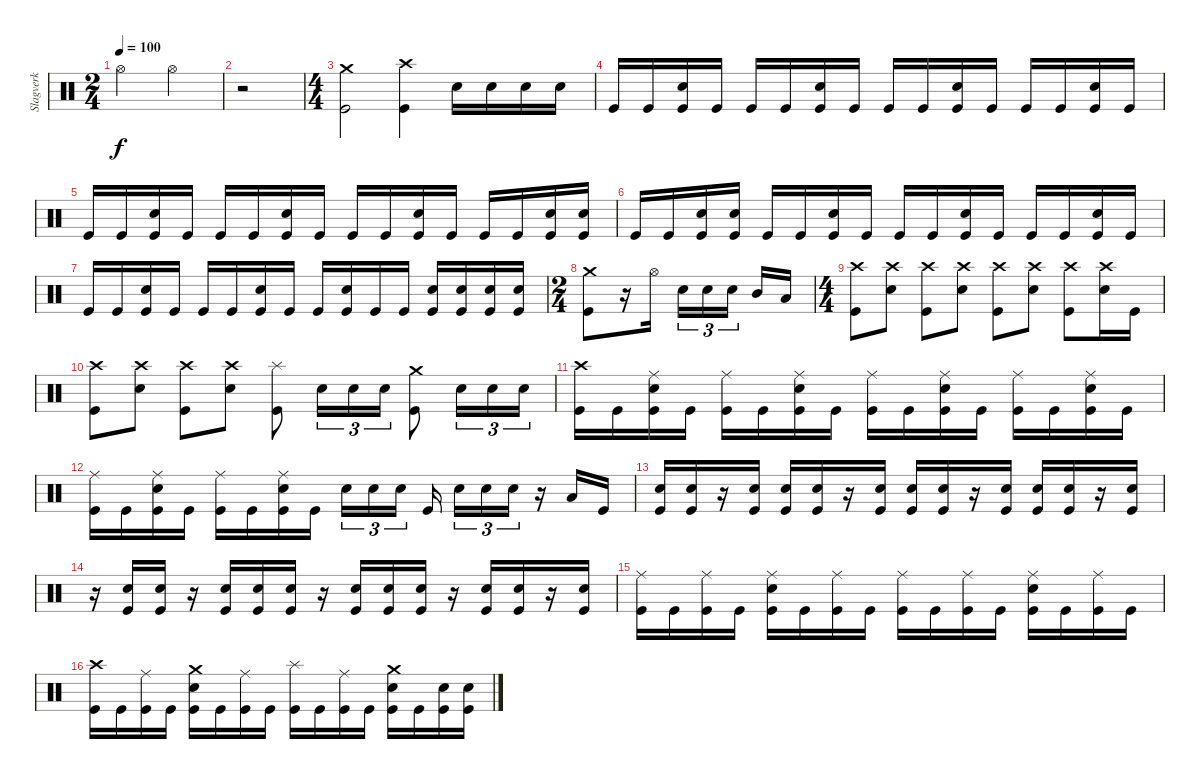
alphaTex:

\track ("Slagverk" "Slagverk") {instrument percussion}
\staff {score}
\articulation defaults
\ts (2 4)
\tempo 100
\clef neutral
\ks c "Hi-Hat (open)".4{dy f volume 13} "Hi-Hat (open)".4
|
r.2 |
\ts (4 4)
("Crash medium (hit)" "Kick (hit)").2 ("Crash high (hit)" "Kick (hit)").4 "Electric Snare (hit)".16 "Electric Snare (hit)".16 "Electric Snare (hit)".16 "Electric Snare (hit)".16 |
"Kick (hit)".16{volume 13} "Kick (hit)".16 ("Electric Snare (hit)" "Kick (hit)").16 "Kick (hit)".16 "Kick (hit)".16 "Kick (hit)".16 ("Electric Snare (hit)" "Kick (hit)").16 "Kick (hit)".16 "Kick (hit)".16 "Kick (hit)".16 ("Electric Snare (hit)" "Kick (hit)").16 "Kick (hit)".16 "Kick (hit)".16 "Kick (hit)".16 ("Electric Snare (hit)" "Kick (hit)").16 "Kick (hit)".16 |
"Kick (hit)".16 "Kick (hit)".16 ("Electric Snare (hit)" "Kick (hit)").16 "Kick (hit)".16 "Kick (hit)".16 "Kick (hit)".16 ("Electric Snare (hit)" "Kick (hit)").16 "Kick (hit)".16 "Kick (hit)".16 "Kick (hit)".16 ("Electric Snare (hit)" "Kick (hit)").16 "Kick (hit)".16 "Kick (hit)".16 "Kick (hit)".16 ("Electric Snare (hit)" "Kick (hit)").16 ("Electric Snare (hit)" "Kick (hit)").16 |
"Kick (hit)".16 "Kick (hit)".16 ("Electric Snare (hit)" "Kick (hit)").16 ("Electric Snare (hit)" "Kick (hit)").16 "Kick (hit)".16 "Kick (hit)".16 ("Electric Snare (hit)" "Kick (hit)").16 "Kick (hit)".16 "Kick (hit)".16 "Kick (hit)".16 ("Electric Snare (hit)" "Kick (hit)").16 "Kick (hit)".16 "Kick (hit)".16 "Kick (hit)".16 ("Electric Snare (hit)" "Kick (hit)").16 "Kick (hit)".16 |
"Kick (hit)".16 "Kick (hit)".16 ("Electric Snare (hit)" "Kick (hit)").16 "Kick (hit)".16 "Kick (hit)".16 "Kick (hit)".16 ("Electric Snare (hit)" "Kick (hit)").16 "Kick (hit)".16 "Kick (hit)".16 ("Electric Snare (hit)" "Kick (hit)").16 "Kick (hit)".16 "Kick (hit)".16 ("Electric Snare (hit)" "Kick (hit)").16 ("Electric Snare (hit)" "Kick (hit)").16 ("Electric Snare (hit)" "Kick (hit)").16 ("Electric Snare (hit)" "Kick (hit)").16 |
\ts (2 4)
("Crash medium (hit)" "Kick (hit)").8 r.16 "Hi-Hat (open)".16 "Electric Snare (hit)".16{tu (3 2)} "Electric Snare (hit)".16{tu (3 2)} "Electric Snare (hit)".16{tu (3 2)} "Mid Tom (hit)".16 "Low Tom (hit)".16 |
\ts (4 4)
("Crash high (hit)" "Kick (hit)").8 ("Crash high (hit)" "Electric Snare (hit)").8 ("Crash high (hit)" "Kick (hit)").8 ("Crash high (hit)" "Electric Snare (hit)").8 ("Crash high (hit)" "Kick (hit)").8 ("Crash high (hit)" "Electric Snare (hit)").8 ("Crash high (hit)" "Kick (hit)").8 ("Crash high (hit)" "Electric Snare (hit)").16 "Kick (hit)".16 |
("Crash high (hit)" "Kick (hit)").8 ("Crash high (hit)" "Electric Snare (hit)").8 ("Crash high (hit)" "Kick (hit)").8 ("Crash high (hit)" "Electric Snare (hit)").8 ("Splash (hit)" "Kick (hit)").8 "Electric Snare (hit)".16{tu (3 2)} "Electric Snare (hit)".16{tu (3 2)} "Electric Snare (hit)".16{tu (3 2)} ("Crash medium (hit)" "Kick (hit)").8 "Electric Snare (hit)".16{tu (3 2)} "Electric Snare (hit)".16{tu (3 2)} "Electric Snare (hit)".16{tu (3 2)} |
("Crash high (hit)" "Kick (hit)").16 "Kick (hit)".16 ("Ride (middle)" "Electric Snare (hit)" "Kick (hit)").16 "Kick (hit)".16 ("Ride (middle)" "Kick (hit)").16 "Kick (hit)".16 ("Ride (middle)" "Electric Snare (hit)" "Kick (hit)").16 "Kick (hit)".16 ("Ride (middle)" "Kick (hit)").16 "Kick (hit)".16 ("Ride (middle)" "Electric Snare (hit)" "Kick (hit)").16 "Kick (hit)".16 ("Ride (middle)" "Kick (hit)").16 "Kick (hit)".16 ("Ride (middle)" "Electric Snare (hit)" "Kick (hit)").16 "Kick (hit)".16 |
("Ride (middle)" "Kick (hit)").16 "Kick (hit)".16 ("Ride (middle)" "Electric Snare (hit)" "Kick (hit)").16 "Kick (hit)".16 ("Ride (middle)" "Kick (hit)").16 "Kick (hit)".16 ("Ride (middle)" "Electric Snare (hit)" "Kick (hit)").16 "Kick (hit)".16 "Electric Snare (hit)".16{tu (3 2)} "Electric Snare (hit)".16{tu (3 2)} "Electric Snare (hit)".16{tu (3 2)} "Kick (hit)".16 "Electric Snare (hit)".16{tu (3 2)} "Electric Snare (hit)".16{tu (3 2)} "Electric Snare (hit)".16{tu (3 2)} r.16 "Low Floor Tom (hit)".16 "Kick (hit)".16 |
("Electric Snare (hit)" "Kick (hit)").16 ("Electric Snare (hit)" "Kick (hit)").16 r.16 ("Electric Snare (hit)" "Kick (hit)").16 ("Electric Snare (hit)" "Kick (hit)").16 ("Electric Snare (hit)" "Kick (hit)").16 r.16 ("Electric Snare (hit)" "Kick (hit)").16 ("Electric Snare (hit)" "Kick (hit)").16 ("Electric Snare (hit)" "Kick (hit)").16 r.16 ("Electric Snare (hit)" "Kick (hit)").16 ("Electric Snare (hit)" "Kick (hit)").16 ("Electric Snare (hit)" "Kick (hit)").16 r.16 ("Electric Snare (hit)" "Kick (hit)").16 |
r.16 ("Electric Snare (hit)" "Kick (hit)").16 ("Electric Snare (hit)" "Kick (hit)").16 r.16 ("Electric Snare (hit)" "Kick (hit)").16 ("Electric Snare (hit)" "Kick (hit)").16 ("Electric Snare (hit)" "Kick (hit)").16 r.16 ("Electric Snare (hit)" "Kick (hit)").16 ("Electric Snare (hit)" "Kick (hit)").16 ("Electric Snare (hit)" "Kick (hit)").16 r.16 ("Electric Snare (hit)" "Kick (hit)").16 ("Electric Snare (hit)" "Kick (hit)").16 r.16 ("Electric Snare (hit)" "Kick (hit)").16 |
("Ride (middle)" "Kick (hit)").16 "Kick (hit)".16 ("Ride (middle)" "Kick (hit)").16 "Kick (hit)".16 ("Ride (middle)" "Electric Snare (hit)" "Kick (hit)").16 "Kick (hit)".16 ("Ride (middle)" "Kick (hit)").16 "Kick (hit)".16 ("Ride (middle)" "Kick (hit)").16 "Kick (hit)".16 ("Ride (middle)" "Kick (hit)").16 "Kick (hit)".16 ("Ride (middle)" "Electric Snare (hit)" "Kick (hit)").16 "Kick (hit)".16 ("Ride (middle)" "Kick (hit)").16 "Kick (hit)".16 |
("Crash high (hit)" "Kick (hit)").16 "Kick (hit)".16 ("Ride (middle)" "Kick (hit)").16 "Kick (hit)".16 ("Crash medium (hit)" "Electric Snare (hit)" "Kick (hit)").16 "Kick (hit)".16 ("Ride (middle)" "Kick (hit)").16 "Kick (hit)".16 ("Splash (hit)" "Kick (hit)").16 "Kick (hit)".16 ("Ride (middle)" "Kick (hit)").16 "Kick (hit)".16 ("Crash medium (hit)" "Electric Snare (hit)" "Kick (hit)").16 "Kick (hit)".16 ("Electric Snare (hit)" "Kick (hit)").16 ("Electric Snare (hit)" "Kick (hit)").16
